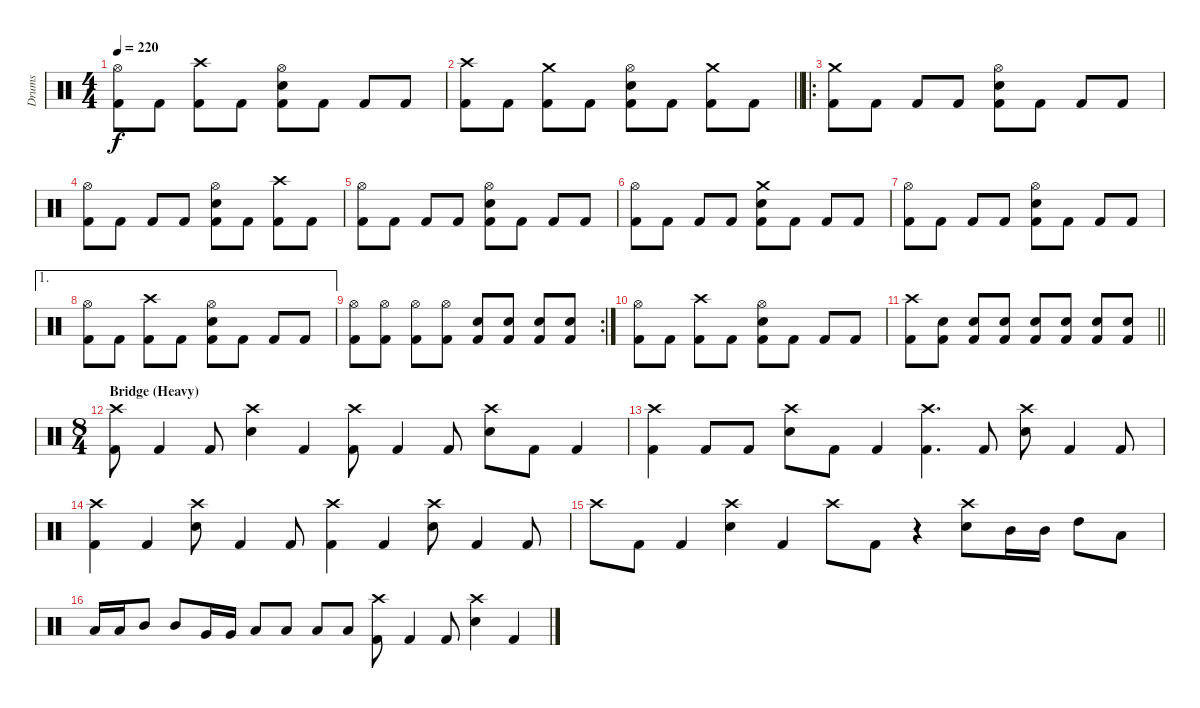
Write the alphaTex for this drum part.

\track ("Drums" "Drums") {instrument percussion}
\staff {score}
\articulation defaults
\ts (4 4)
\tempo 220
\clef neutral
\ks c
("Hi-Hat (open)" "Kick (hit) 2").8{dy f} "Kick (hit) 2".8 ("Crash high (hit)" "Kick (hit) 2").8 "Kick (hit) 2".8 ("Hi-Hat (open)" "Electric Snare (hit)" "Kick (hit) 2").8 "Kick (hit) 2".8 "Kick (hit) 2".8 "Kick (hit) 2".8 |
\barLineRight lightlight
("Crash high (hit)" "Kick (hit) 2").8 "Kick (hit) 2".8 ("Crash medium (hit)" "Kick (hit) 2").8 "Kick (hit) 2".8 ("Hi-Hat (open)" "Electric Snare (hit)" "Kick (hit) 2").8 "Kick (hit) 2".8 ("Crash medium (hit)" "Kick (hit) 2").8 "Kick (hit) 2".8 |
\ro
("Crash medium (hit)" "Kick (hit) 2").8 "Kick (hit) 2".8 "Kick (hit) 2".8 "Kick (hit) 2".8 ("Hi-Hat (open)" "Electric Snare (hit)" "Kick (hit) 2").8 "Kick (hit) 2".8 "Kick (hit) 2".8 "Kick (hit) 2".8 |
("Hi-Hat (open)" "Kick (hit) 2").8 "Kick (hit) 2".8 "Kick (hit) 2".8 "Kick (hit) 2".8 ("Hi-Hat (open)" "Electric Snare (hit)" "Kick (hit) 2").8 "Kick (hit) 2".8 ("Crash high (hit)" "Kick (hit) 2").8 "Kick (hit) 2".8 |
("Hi-Hat (open)" "Kick (hit) 2").8 "Kick (hit) 2".8 "Kick (hit) 2".8 "Kick (hit) 2".8 ("Hi-Hat (open)" "Electric Snare (hit)" "Kick (hit) 2").8 "Kick (hit) 2".8 "Kick (hit) 2".8 "Kick (hit) 2".8 |
("Hi-Hat (open)" "Kick (hit) 2").8 "Kick (hit) 2".8 "Kick (hit) 2".8 "Kick (hit) 2".8 ("Crash medium (hit)" "Electric Snare (hit)" "Kick (hit) 2").8 "Kick (hit) 2".8 "Kick (hit) 2".8 "Kick (hit) 2".8 |
("Hi-Hat (open)" "Kick (hit) 2").8 "Kick (hit) 2".8 "Kick (hit) 2".8 "Kick (hit) 2".8 ("Hi-Hat (open)" "Electric Snare (hit)" "Kick (hit) 2").8 "Kick (hit) 2".8 "Kick (hit) 2".8 "Kick (hit) 2".8 |
\ae 1
("Hi-Hat (open)" "Kick (hit) 2").8 "Kick (hit) 2".8 ("Crash high (hit)" "Kick (hit) 2").8 "Kick (hit) 2".8 ("Hi-Hat (open)" "Electric Snare (hit)" "Kick (hit) 2").8 "Kick (hit) 2".8 "Kick (hit) 2".8 "Kick (hit) 2".8 |
\rc 2
("Hi-Hat (open)" "Kick (hit) 2").8 ("Hi-Hat (open)" "Kick (hit) 2").8 ("Hi-Hat (open)" "Kick (hit) 2").8 ("Hi-Hat (open)" "Kick (hit) 2").8 ("Electric Snare (hit)" "Kick (hit) 2").8 ("Electric Snare (hit)" "Kick (hit) 2").8 ("Electric Snare (hit)" "Kick (hit) 2").8 ("Electric Snare (hit)" "Kick (hit) 2").8 |
("Hi-Hat (open)" "Kick (hit) 2").8 "Kick (hit) 2".8 ("Crash high (hit)" "Kick (hit) 2").8 "Kick (hit) 2".8 ("Hi-Hat (open)" "Electric Snare (hit)" "Kick (hit) 2").8 "Kick (hit) 2".8 "Kick (hit) 2".8 "Kick (hit) 2".8 |
\barLineRight lightlight
("Crash high (hit)" "Kick (hit) 2").8 ("Electric Snare (hit)" "Kick (hit) 2").8 ("Electric Snare (hit)" "Kick (hit) 2").8 ("Electric Snare (hit)" "Kick (hit) 2").8 ("Electric Snare (hit)" "Kick (hit) 2").8 ("Electric Snare (hit)" "Kick (hit) 2").8 ("Electric Snare (hit)" "Kick (hit) 2").8 ("Electric Snare (hit)" "Kick (hit) 2").8 |
\ts (8 4)
\section ("" "Bridge (Heavy)")
("Crash high (hit)" "Kick (hit) 2").8 "Kick (hit) 2".4 "Kick (hit) 2".8 ("Crash high (hit)" "Electric Snare (hit)").4 "Kick (hit) 2".4 ("Crash high (hit)" "Kick (hit) 2").8 "Kick (hit) 2".4 "Kick (hit) 2".8 ("Crash high (hit)" "Electric Snare (hit)").8 "Kick (hit) 2".8 "Kick (hit) 2".4 |
("Crash high (hit)" "Kick (hit) 2").4 "Kick (hit) 2".8 "Kick (hit) 2".8 ("Crash high (hit)" "Electric Snare (hit)").8 "Kick (hit) 2".8 "Kick (hit) 2".4 ("Crash high (hit)" "Kick (hit) 2").4{d} "Kick (hit) 2".8 ("Crash high (hit)" "Electric Snare (hit)").8 "Kick (hit) 2".4 "Kick (hit) 2".8 |
("Crash high (hit)" "Kick (hit) 2").4 "Kick (hit) 2".4 ("Crash high (hit)" "Electric Snare (hit)").8 "Kick (hit) 2".4 "Kick (hit) 2".8 ("Crash high (hit)" "Kick (hit) 2").4 "Kick (hit) 2".4 ("Crash high (hit)" "Electric Snare (hit)").8 "Kick (hit) 2".4 "Kick (hit) 2".8 |
"Crash high (hit)".8 "Kick (hit) 2".8 "Kick (hit) 2".4 ("Crash high (hit)" "Electric Snare (hit)").4 "Kick (hit) 2".4 "Crash high (hit)".8 "Kick (hit) 2".8 r.4 ("Crash high (hit)" "Electric Snare (hit)").8 "Mid Tom (hit)".16 "Mid Tom (hit)".16 "High Tom (hit)".8 "Low Tom (hit)".8 |
"Low Tom (hit)".16 "Low Tom (hit)".16 "Mid Tom (hit)".8 "Mid Tom (hit)".8 "Very Low Tom (hit)".16 "Very Low Tom (hit)".16 "Low Tom (hit)".8 "Low Tom (hit)".8 "Low Floor Tom (hit)".8 "Low Floor Tom (hit)".8 ("Crash high (hit)" "Kick (hit) 2").8 "Kick (hit) 2".4 "Kick (hit) 2".8 ("Crash high (hit)" "Electric Snare (hit)").4 "Kick (hit) 2".4
